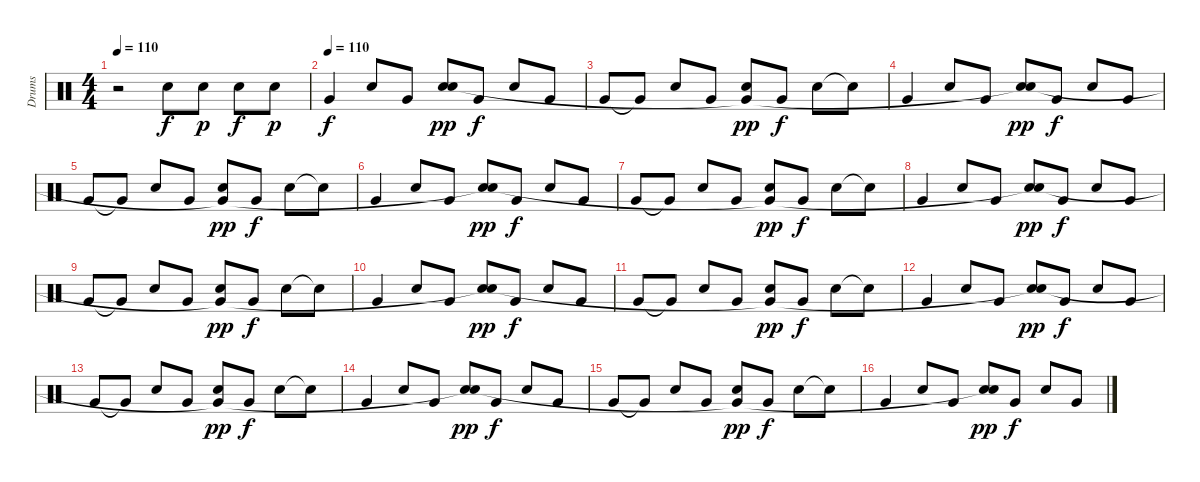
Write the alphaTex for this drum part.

\track ("Drums" "Drums") {instrument percussion}
\staff {score}
\articulation defaults
\ts (4 4)
\tempo 110
\clef neutral
\ks c
r.2{dy f} "Electric Snare (hit)".8 "Electric Snare (hit)".8{dy p} "Electric Snare (hit)".8{dy f} "Electric Snare (hit)".8{dy p} |
\tempo (110)
"Very Low Tom (hit)".4{dy f} "Electric Snare (hit)".8 "Very Low Tom (hit)".8 ("Electric Snare (hit)" "Snare (hit)").8{dy pp} "Very Low Tom (hit)".8{dy f} "Electric Snare (hit)".8 "Very Low Tom (hit)".8 |
"Very Low Tom (hit)".8 "Very Low Tom (hit)"{t}.8 "Electric Snare (hit)".8 "Very Low Tom (hit)".8 ("Electric Snare (hit)" "Very Low Tom (hit)"{t}).8{dy pp} "Very Low Tom (hit)".8{dy f} "Electric Snare (hit)".8 "Snare (hit)"{t}.8 |
"Very Low Tom (hit)".4 "Electric Snare (hit)".8 "Very Low Tom (hit)".8 ("Electric Snare (hit)" "Snare (hit)"{t}).8{dy pp} "Very Low Tom (hit)".8{dy f} "Electric Snare (hit)".8 "Very Low Tom (hit)".8 |
"Very Low Tom (hit)".8 "Very Low Tom (hit)"{t}.8 "Electric Snare (hit)".8 "Very Low Tom (hit)".8 ("Electric Snare (hit)" "Very Low Tom (hit)"{t}).8{dy pp} "Very Low Tom (hit)".8{dy f} "Electric Snare (hit)".8 "Snare (hit)"{t}.8 |
"Very Low Tom (hit)".4 "Electric Snare (hit)".8 "Very Low Tom (hit)".8 ("Electric Snare (hit)" "Snare (hit)"{t}).8{dy pp} "Very Low Tom (hit)".8{dy f} "Electric Snare (hit)".8 "Very Low Tom (hit)".8 |
"Very Low Tom (hit)".8 "Very Low Tom (hit)"{t}.8 "Electric Snare (hit)".8 "Very Low Tom (hit)".8 ("Electric Snare (hit)" "Very Low Tom (hit)"{t}).8{dy pp} "Very Low Tom (hit)".8{dy f} "Electric Snare (hit)".8 "Snare (hit)"{t}.8 |
"Very Low Tom (hit)".4 "Electric Snare (hit)".8 "Very Low Tom (hit)".8 ("Electric Snare (hit)" "Snare (hit)"{t}).8{dy pp} "Very Low Tom (hit)".8{dy f} "Electric Snare (hit)".8 "Very Low Tom (hit)".8 |
"Very Low Tom (hit)".8 "Very Low Tom (hit)"{t}.8 "Electric Snare (hit)".8 "Very Low Tom (hit)".8 ("Electric Snare (hit)" "Very Low Tom (hit)"{t}).8{dy pp} "Very Low Tom (hit)".8{dy f} "Electric Snare (hit)".8 "Snare (hit)"{t}.8 |
"Very Low Tom (hit)".4 "Electric Snare (hit)".8 "Very Low Tom (hit)".8 ("Electric Snare (hit)" "Snare (hit)"{t}).8{dy pp} "Very Low Tom (hit)".8{dy f} "Electric Snare (hit)".8 "Very Low Tom (hit)".8 |
"Very Low Tom (hit)".8 "Very Low Tom (hit)"{t}.8 "Electric Snare (hit)".8 "Very Low Tom (hit)".8 ("Electric Snare (hit)" "Very Low Tom (hit)"{t}).8{dy pp} "Very Low Tom (hit)".8{dy f} "Electric Snare (hit)".8 "Snare (hit)"{t}.8 |
"Very Low Tom (hit)".4 "Electric Snare (hit)".8 "Very Low Tom (hit)".8 ("Electric Snare (hit)" "Snare (hit)"{t}).8{dy pp} "Very Low Tom (hit)".8{dy f} "Electric Snare (hit)".8 "Very Low Tom (hit)".8 |
"Very Low Tom (hit)".8 "Very Low Tom (hit)"{t}.8 "Electric Snare (hit)".8 "Very Low Tom (hit)".8 ("Electric Snare (hit)" "Very Low Tom (hit)"{t}).8{dy pp} "Very Low Tom (hit)".8{dy f} "Electric Snare (hit)".8 "Snare (hit)"{t}.8 |
"Very Low Tom (hit)".4 "Electric Snare (hit)".8 "Very Low Tom (hit)".8 ("Electric Snare (hit)" "Snare (hit)"{t}).8{dy pp} "Very Low Tom (hit)".8{dy f} "Electric Snare (hit)".8 "Very Low Tom (hit)".8 |
"Very Low Tom (hit)".8 "Very Low Tom (hit)"{t}.8 "Electric Snare (hit)".8 "Very Low Tom (hit)".8 ("Electric Snare (hit)" "Very Low Tom (hit)"{t}).8{dy pp} "Very Low Tom (hit)".8{dy f} "Electric Snare (hit)".8 "Snare (hit)"{t}.8 |
"Very Low Tom (hit)".4 "Electric Snare (hit)".8 "Very Low Tom (hit)".8 ("Electric Snare (hit)" "Snare (hit)"{t}).8{dy pp} "Very Low Tom (hit)".8{dy f} "Electric Snare (hit)".8 "Very Low Tom (hit)".8
